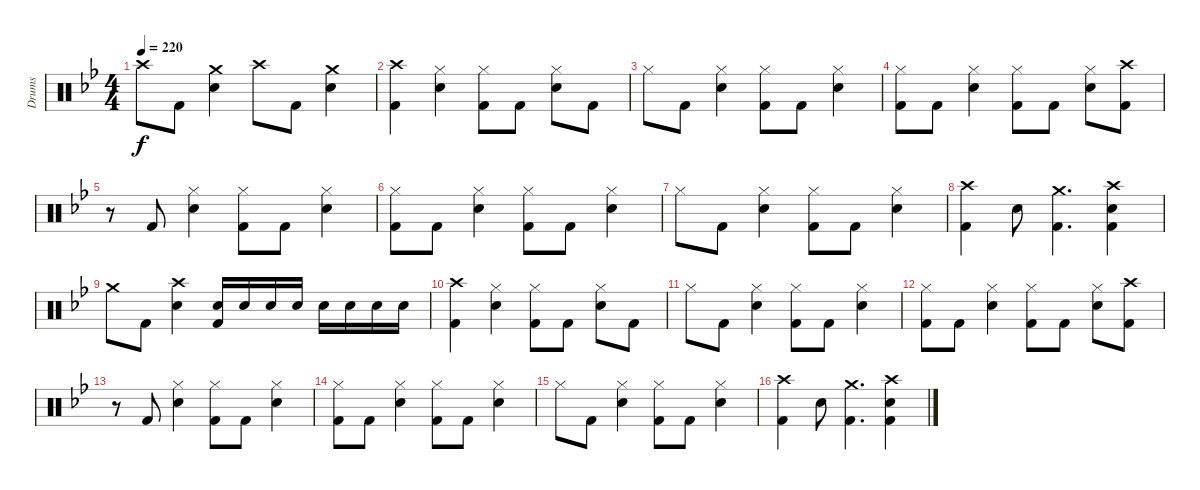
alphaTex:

\track ("Drums" "Drums") {instrument percussion}
\staff {score}
\articulation defaults
\ts (4 4)
\tempo 220
\clef neutral
\ks gminor "Crash high (hit)".8{dy f} "Kick (hit) 2".8
("Snare (hit) 2" "Crash medium (hit)").4 "Crash high (hit)".8 "Kick (hit) 2".8 ("Snare (hit) 2" "Crash medium (hit)").4 |
("Kick (hit) 2" "Crash high (hit)").4 ("Snare (hit) 2" "Hi-Hat (closed)").4 ("Kick (hit) 2" "Hi-Hat (closed)").8 "Kick (hit) 2".8 ("Snare (hit) 2" "Hi-Hat (closed)").8 "Kick (hit) 2".8 |
"Hi-Hat (closed)".8 "Kick (hit) 2".8 ("Snare (hit) 2" "Hi-Hat (closed)").4 ("Kick (hit) 2" "Hi-Hat (closed)").8 "Kick (hit) 2".8 ("Snare (hit) 2" "Hi-Hat (closed)").4 |
("Kick (hit) 2" "Hi-Hat (closed)").8 "Kick (hit) 2".8 ("Snare (hit) 2" "Hi-Hat (closed)").4 ("Kick (hit) 2" "Hi-Hat (closed)").8 "Kick (hit) 2".8 ("Snare (hit) 2" "Hi-Hat (closed)").8 ("Kick (hit) 2" "Crash high (hit)").8 |
r.8 "Kick (hit) 2".8 ("Snare (hit) 2" "Hi-Hat (closed)").4 ("Kick (hit) 2" "Hi-Hat (closed)").8 "Kick (hit) 2".8 ("Snare (hit) 2" "Hi-Hat (closed)").4 |
("Kick (hit) 2" "Hi-Hat (closed)").8 "Kick (hit) 2".8 ("Snare (hit) 2" "Hi-Hat (closed)").4 ("Kick (hit) 2" "Hi-Hat (closed)").8 "Kick (hit) 2".8 ("Snare (hit) 2" "Hi-Hat (closed)").4 |
"Hi-Hat (closed)".8 "Kick (hit) 2".8 ("Snare (hit) 2" "Hi-Hat (closed)").4 ("Kick (hit) 2" "Hi-Hat (closed)").8 "Kick (hit) 2".8 ("Snare (hit) 2" "Hi-Hat (closed)").4 |
("Kick (hit) 2" "Crash high (hit)").4 "Snare (hit) 2".8 ("Kick (hit) 2" "Crash medium (hit)").4{d} ("Kick (hit) 2" "Snare (hit) 2" "Crash high (hit)").4 |
"Crash medium (hit)".8 "Kick (hit) 2".8 ("Snare (hit) 2" "Crash high (hit)").4 ("Kick (hit) 2" "Snare (hit) 2").16 "Snare (hit) 2".16 "Snare (hit) 2".16 "Snare (hit) 2".16 "Snare (hit) 2".16 "Snare (hit) 2".16 "Snare (hit) 2".16 "Snare (hit) 2".16 |
("Kick (hit) 2" "Crash high (hit)").4 ("Snare (hit) 2" "Hi-Hat (closed)").4 ("Kick (hit) 2" "Hi-Hat (closed)").8 "Kick (hit) 2".8 ("Snare (hit) 2" "Hi-Hat (closed)").8 "Kick (hit) 2".8 |
"Hi-Hat (closed)".8 "Kick (hit) 2".8 ("Snare (hit) 2" "Hi-Hat (closed)").4 ("Kick (hit) 2" "Hi-Hat (closed)").8 "Kick (hit) 2".8 ("Snare (hit) 2" "Hi-Hat (closed)").4 |
("Kick (hit) 2" "Hi-Hat (closed)").8 "Kick (hit) 2".8 ("Snare (hit) 2" "Hi-Hat (closed)").4 ("Kick (hit) 2" "Hi-Hat (closed)").8 "Kick (hit) 2".8 ("Snare (hit) 2" "Hi-Hat (closed)").8 ("Kick (hit) 2" "Crash high (hit)").8 |
r.8 "Kick (hit) 2".8 ("Snare (hit) 2" "Hi-Hat (closed)").4 ("Kick (hit) 2" "Hi-Hat (closed)").8 "Kick (hit) 2".8 ("Snare (hit) 2" "Hi-Hat (closed)").4 |
("Kick (hit) 2" "Hi-Hat (closed)").8 "Kick (hit) 2".8 ("Snare (hit) 2" "Hi-Hat (closed)").4 ("Kick (hit) 2" "Hi-Hat (closed)").8 "Kick (hit) 2".8 ("Snare (hit) 2" "Hi-Hat (closed)").4 |
"Hi-Hat (closed)".8 "Kick (hit) 2".8 ("Snare (hit) 2" "Hi-Hat (closed)").4 ("Kick (hit) 2" "Hi-Hat (closed)").8 "Kick (hit) 2".8 ("Snare (hit) 2" "Hi-Hat (closed)").4 |
("Kick (hit) 2" "Crash high (hit)").4 "Snare (hit) 2".8 ("Kick (hit) 2" "Crash medium (hit)").4{d} ("Kick (hit) 2" "Snare (hit) 2" "Crash high (hit)").4
